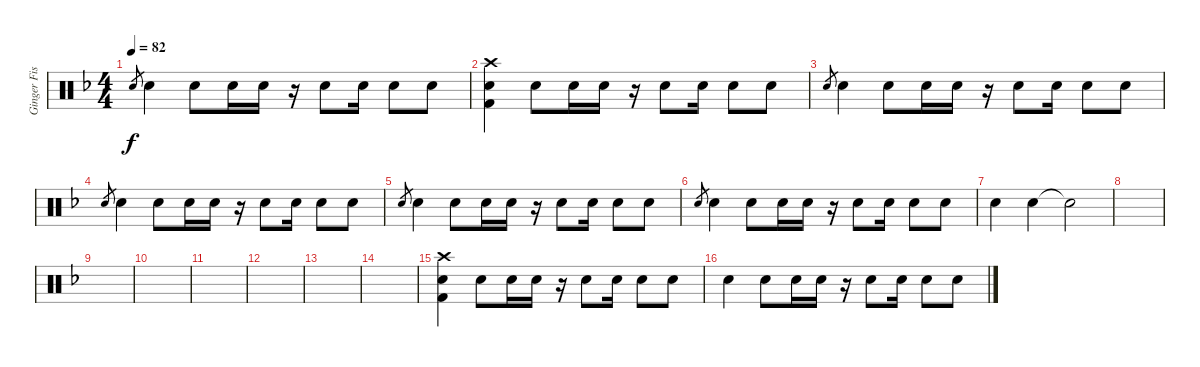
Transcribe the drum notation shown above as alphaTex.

\track ("Ginger Fish" "Ginger Fis") {instrument percussion}
\staff {score}
\articulation defaults
\ts (4 4)
\tempo 82
\clef neutral
\ks f "Electric Snare (hit)".8{gr dy f} "Electric Snare (hit)".4 "Electric Snare (hit)".8 "Snare (hit) 2".16 "Electric Snare (hit)".16
r.16 "Electric Snare (hit)".8 "Snare (hit) 2".16 "Snare (hit) 2".8 "Electric Snare (hit)".8 |
("Kick (hit) 2" "Crash high (hit)" "Electric Snare (hit)").4{volume 13} "Electric Snare (hit)".8 "Snare (hit) 2".16 "Electric Snare (hit)".16 r.16 "Electric Snare (hit)".8 "Snare (hit) 2".16 "Snare (hit) 2".8 "Electric Snare (hit)".8 |
"Electric Snare (hit)".8{gr} "Electric Snare (hit)".4 "Electric Snare (hit)".8 "Snare (hit) 2".16 "Electric Snare (hit)".16 r.16 "Electric Snare (hit)".8 "Snare (hit) 2".16 "Snare (hit) 2".8 "Electric Snare (hit)".8 |
"Electric Snare (hit)".8{gr} "Electric Snare (hit)".4 "Electric Snare (hit)".8 "Snare (hit) 2".16 "Electric Snare (hit)".16 r.16 "Electric Snare (hit)".8 "Snare (hit) 2".16 "Snare (hit) 2".8 "Electric Snare (hit)".8 |
"Electric Snare (hit)".8{gr} "Electric Snare (hit)".4 "Electric Snare (hit)".8 "Snare (hit) 2".16 "Electric Snare (hit)".16 r.16 "Electric Snare (hit)".8 "Snare (hit) 2".16 "Snare (hit) 2".8 "Electric Snare (hit)".8 |
"Electric Snare (hit)".8{gr} "Electric Snare (hit)".4 "Electric Snare (hit)".8 "Snare (hit) 2".16 "Electric Snare (hit)".16 r.16 "Electric Snare (hit)".8 "Snare (hit) 2".16 "Snare (hit) 2".8 "Electric Snare (hit)".8 |
"Electric Snare (hit)".4 "Electric Snare (hit)".4{volume 8} "Snare (hit)"{t}.2 |
|
|
|
|
|
|
|
("Kick (hit) 2" "Crash high (hit)" "Electric Snare (hit)").4{volume 13} "Electric Snare (hit)".8 "Electric Snare (hit)".16 "Electric Snare (hit)".16 r.16 "Electric Snare (hit)".8 "Electric Snare (hit)".16 "Electric Snare (hit)".8 "Electric Snare (hit)".8 |
"Electric Snare (hit)".4 "Electric Snare (hit)".8 "Electric Snare (hit)".16 "Electric Snare (hit)".16 r.16 "Electric Snare (hit)".8 "Electric Snare (hit)".16 "Electric Snare (hit)".8 "Electric Snare (hit)".8
